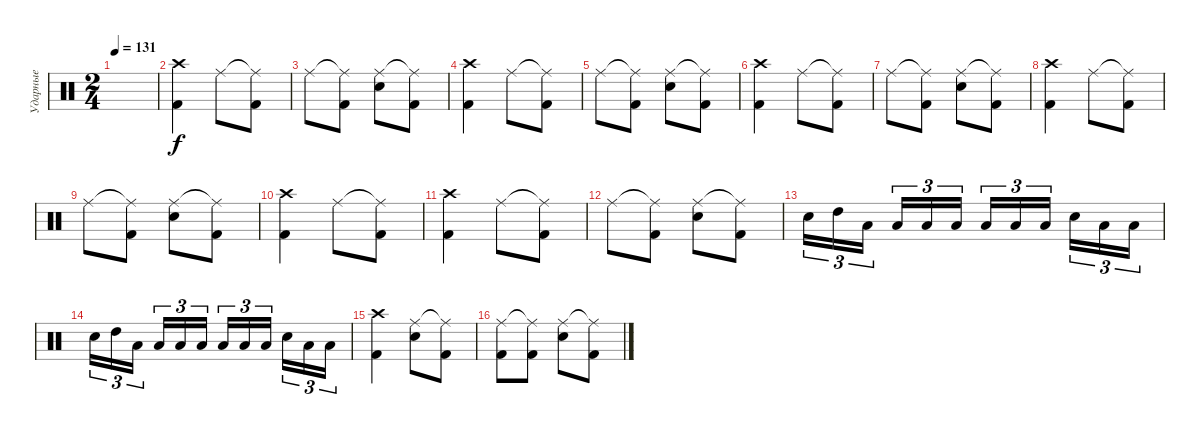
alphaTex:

\track ("Ударные" "Ударные") {instrument percussion}
\staff {score}
\articulation defaults
\ts (2 4)
\tempo 131
\clef neutral
\ks c
|
("Crash high (hit)" "Kick (hit) 2").4 "Ride (middle)".8 ("Ride (middle)"{t} "Kick (hit) 2").8 |
"Ride (middle)".8 ("Ride (middle)"{t} "Kick (hit) 2").8 ("Ride (middle)" "Electric Snare (hit)").8 ("Ride (middle)"{t} "Kick (hit) 2").8 |
("Crash high (hit)" "Kick (hit) 2").4 "Ride (middle)".8 ("Ride (middle)"{t} "Kick (hit) 2").8 |
"Ride (middle)".8 ("Ride (middle)"{t} "Kick (hit) 2").8 ("Ride (middle)" "Electric Snare (hit)").8 ("Ride (middle)"{t} "Kick (hit) 2").8 |
("Crash high (hit)" "Kick (hit) 2").4 "Ride (middle)".8 ("Ride (middle)"{t} "Kick (hit) 2").8 |
"Ride (middle)".8 ("Ride (middle)"{t} "Kick (hit) 2").8 ("Ride (middle)" "Electric Snare (hit)").8 ("Ride (middle)"{t} "Kick (hit) 2").8 |
("Crash high (hit)" "Kick (hit) 2").4 "Ride (middle)".8 ("Ride (middle)"{t} "Kick (hit) 2").8 |
"Ride (middle)".8 ("Ride (middle)"{t} "Kick (hit) 2").8 ("Ride (middle)" "Electric Snare (hit)").8 ("Ride (middle)"{t} "Kick (hit) 2").8 |
("Crash high (hit)" "Kick (hit) 2").4 "Ride (middle)".8 ("Ride (middle)"{t} "Kick (hit) 2").8 |
("Crash high (hit)" "Kick (hit) 2").4 "Ride (middle)".8 ("Ride (middle)"{t} "Kick (hit) 2").8 |
"Ride (middle)".8 ("Ride (middle)"{t} "Kick (hit) 2").8 ("Ride (middle)" "Electric Snare (hit)").8 ("Ride (middle)"{t} "Kick (hit) 2").8 |
"Electric Snare (hit)".16{tu (3 2)} "High Tom (hit)".16{tu (3 2)} "Low Tom (hit)".16{tu (3 2) beam splitsecondary} "Low Tom (hit)".16{tu (3 2)} "Low Tom (hit)".16{tu (3 2)} "Low Tom (hit)".16{tu (3 2)} "Low Tom (hit)".16{tu (3 2)} "Low Tom (hit)".16{tu (3 2)} "Low Tom (hit)".16{tu (3 2) beam splitsecondary} "Electric Snare (hit)".16{tu (3 2)} "Low Tom (hit)".16{tu (3 2)} "Low Tom (hit)".16{tu (3 2)} |
"Electric Snare (hit)".16{tu (3 2)} "High Tom (hit)".16{tu (3 2)} "Low Tom (hit)".16{tu (3 2) beam splitsecondary} "Low Tom (hit)".16{tu (3 2)} "Low Tom (hit)".16{tu (3 2)} "Low Tom (hit)".16{tu (3 2)} "Low Tom (hit)".16{tu (3 2)} "Low Tom (hit)".16{tu (3 2)} "Low Tom (hit)".16{tu (3 2) beam splitsecondary} "Electric Snare (hit)".16{tu (3 2)} "Low Tom (hit)".16{tu (3 2)} "Low Tom (hit)".16{tu (3 2)} |
("Crash high (hit)" "Kick (hit) 2").4 ("Ride (middle)" "Electric Snare (hit)").8 ("Ride (middle)"{t} "Kick (hit) 2").8 |
("Ride (middle)" "Kick (hit) 2").8 ("Ride (middle)"{t} "Kick (hit) 2").8 ("Ride (middle)" "Electric Snare (hit)").8 ("Ride (middle)"{t} "Kick (hit) 2").8
